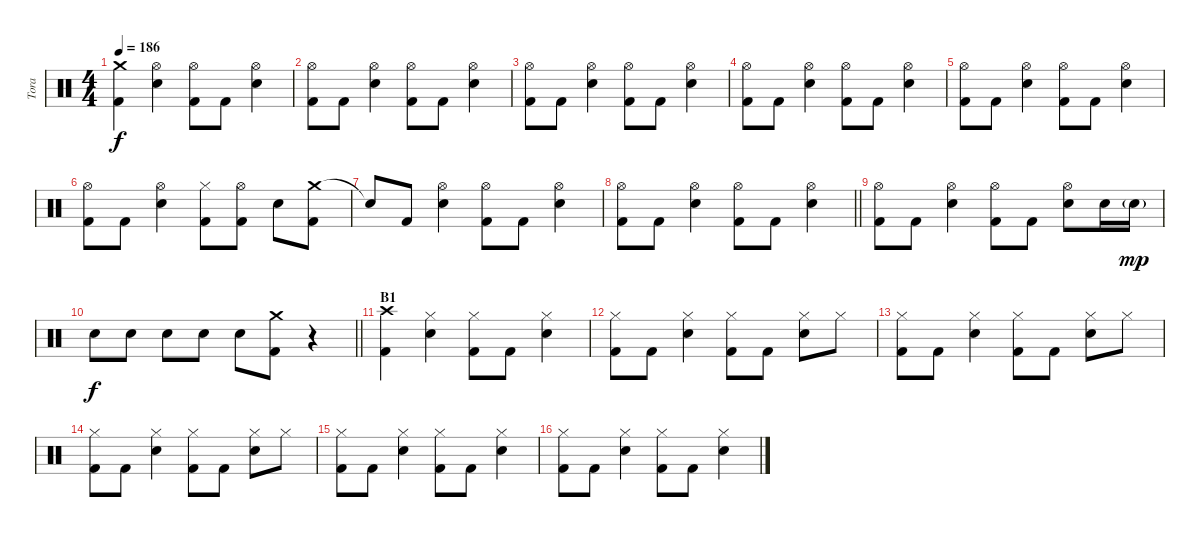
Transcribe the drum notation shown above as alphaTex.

\track ("Tora" "Tora") {instrument percussion}
\staff {score}
\articulation defaults
\ts (4 4)
\tempo 186
\clef neutral
\ks c
("Crash medium (hit)" "Kick (hit) 2").4{dy f} ("Hi-Hat (open)" "Electric Snare (hit)").4 ("Hi-Hat (open)" "Kick (hit) 2").8 "Kick (hit) 2".8 ("Hi-Hat (open)" "Electric Snare (hit)").4 |
("Hi-Hat (open)" "Kick (hit) 2").8 "Kick (hit) 2".8 ("Hi-Hat (open)" "Electric Snare (hit)").4 ("Hi-Hat (open)" "Kick (hit) 2").8 "Kick (hit) 2".8 ("Hi-Hat (open)" "Electric Snare (hit)").4 |
("Hi-Hat (open)" "Kick (hit) 2").8 "Kick (hit) 2".8 ("Hi-Hat (open)" "Electric Snare (hit)").4 ("Hi-Hat (open)" "Kick (hit) 2").8 "Kick (hit) 2".8 ("Hi-Hat (open)" "Electric Snare (hit)").4 |
("Hi-Hat (open)" "Kick (hit) 2").8 "Kick (hit) 2".8 ("Hi-Hat (open)" "Electric Snare (hit)").4 ("Hi-Hat (open)" "Kick (hit) 2").8 "Kick (hit) 2".8 ("Hi-Hat (open)" "Electric Snare (hit)").4 |
("Hi-Hat (open)" "Kick (hit) 2").8 "Kick (hit) 2".8 ("Hi-Hat (open)" "Electric Snare (hit)").4 ("Hi-Hat (open)" "Kick (hit) 2").8 "Kick (hit) 2".8 ("Hi-Hat (open)" "Electric Snare (hit)").4 |
("Hi-Hat (open)" "Kick (hit) 2").8 "Kick (hit) 2".8 ("Hi-Hat (open)" "Electric Snare (hit)").4 ("Hi-Hat (closed)" "Kick (hit) 2").8 ("Hi-Hat (open)" "Kick (hit) 2").8 "Electric Snare (hit)".8 ("Crash medium (hit)" "Kick (hit) 2").8 |
"Snare (hit)"{t}.8 "Kick (hit) 2".8 ("Hi-Hat (open)" "Electric Snare (hit)").4 ("Hi-Hat (open)" "Kick (hit) 2").8 "Kick (hit) 2".8 ("Hi-Hat (open)" "Electric Snare (hit)").4 |
\barLineRight lightlight
("Hi-Hat (open)" "Kick (hit) 2").8 "Kick (hit) 2".8 ("Hi-Hat (open)" "Electric Snare (hit)").4 ("Hi-Hat (open)" "Kick (hit) 2").8 "Kick (hit) 2".8 ("Hi-Hat (open)" "Electric Snare (hit)").4 |
("Hi-Hat (open)" "Kick (hit) 2").8 "Kick (hit) 2".8 ("Hi-Hat (open)" "Electric Snare (hit)").4 ("Hi-Hat (open)" "Kick (hit) 2").8 "Kick (hit) 2".8 ("Hi-Hat (open)" "Electric Snare (hit)").8 "Electric Snare (hit)".16 "Electric Snare (hit)"{g}.16{dy mp} |
\barLineRight lightlight "Electric Snare (hit)".8{dy f} "Electric Snare (hit)".8 "Electric Snare (hit)".8 "Electric Snare (hit)".8 "Electric Snare (hit)".8
("Crash medium (hit)" "Kick (hit) 2").8 r.4 |
\section ("" "B1")
("Crash high (hit)" "Kick (hit) 2").4 ("Hi-Hat (closed)" "Electric Snare (hit)").4 ("Hi-Hat (closed)" "Kick (hit) 2").8 "Kick (hit) 2".8 ("Hi-Hat (closed)" "Electric Snare (hit)").4 |
("Hi-Hat (closed)" "Kick (hit) 2").8 "Kick (hit) 2".8 ("Hi-Hat (closed)" "Electric Snare (hit)").4 ("Hi-Hat (closed)" "Kick (hit) 2").8 "Kick (hit) 2".8 ("Hi-Hat (closed)" "Electric Snare (hit)").8 "Hi-Hat (closed)".8 |
("Hi-Hat (closed)" "Kick (hit) 2").8 "Kick (hit) 2".8 ("Hi-Hat (closed)" "Electric Snare (hit)").4 ("Hi-Hat (closed)" "Kick (hit) 2").8 "Kick (hit) 2".8 ("Hi-Hat (closed)" "Electric Snare (hit)").8 "Hi-Hat (closed)".8 |
("Hi-Hat (closed)" "Kick (hit) 2").8 "Kick (hit) 2".8 ("Hi-Hat (closed)" "Electric Snare (hit)").4 ("Hi-Hat (closed)" "Kick (hit) 2").8 "Kick (hit) 2".8 ("Hi-Hat (closed)" "Electric Snare (hit)").8 "Hi-Hat (closed)".8 |
("Hi-Hat (closed)" "Kick (hit) 2").8 "Kick (hit) 2".8 ("Hi-Hat (closed)" "Electric Snare (hit)").4 ("Hi-Hat (closed)" "Kick (hit) 2").8 "Kick (hit) 2".8 ("Hi-Hat (closed)" "Electric Snare (hit)").4 |
("Hi-Hat (closed)" "Kick (hit) 2").8 "Kick (hit) 2".8 ("Hi-Hat (closed)" "Electric Snare (hit)").4 ("Hi-Hat (closed)" "Kick (hit) 2").8 "Kick (hit) 2".8 ("Hi-Hat (closed)" "Electric Snare (hit)").4
